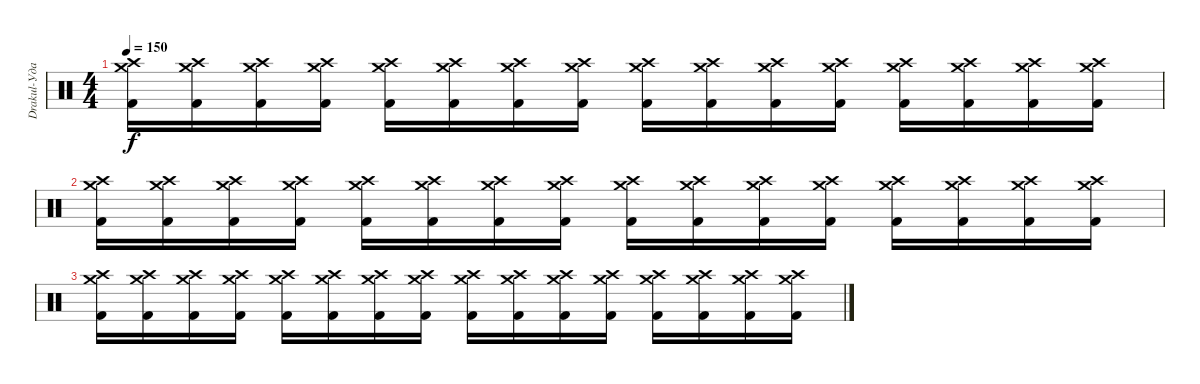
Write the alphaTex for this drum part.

\track ("Drakul-Ударные " "Drakul-Уда") {instrument percussion}
\staff {score}
\articulation defaults
\ts (4 4)
\tempo 150
\clef neutral
\ks c
("Kick (hit) 2" "Crash medium (hit)" "Crash high (hit)").16{dy f} ("Kick (hit) 2" "Crash medium (hit)" "Crash high (hit)").16 ("Kick (hit) 2" "Crash medium (hit)" "Crash high (hit)").16 ("Kick (hit) 2" "Crash medium (hit)" "Crash high (hit)").16 ("Kick (hit) 2" "Crash medium (hit)" "Crash high (hit)").16 ("Kick (hit) 2" "Crash medium (hit)" "Crash high (hit)").16 ("Kick (hit) 2" "Crash medium (hit)" "Crash high (hit)").16 ("Kick (hit) 2" "Crash medium (hit)" "Crash high (hit)").16 ("Kick (hit) 2" "Crash medium (hit)" "Crash high (hit)").16 ("Kick (hit) 2" "Crash medium (hit)" "Crash high (hit)").16 ("Kick (hit) 2" "Crash medium (hit)" "Crash high (hit)").16 ("Kick (hit) 2" "Crash medium (hit)" "Crash high (hit)").16 ("Kick (hit) 2" "Crash medium (hit)" "Crash high (hit)").16 ("Kick (hit) 2" "Crash medium (hit)" "Crash high (hit)").16 ("Kick (hit) 2" "Crash medium (hit)" "Crash high (hit)").16 ("Kick (hit) 2" "Crash medium (hit)" "Crash high (hit)").16 |
("Kick (hit) 2" "Crash medium (hit)" "Crash high (hit)").16 ("Kick (hit) 2" "Crash medium (hit)" "Crash high (hit)").16 ("Kick (hit) 2" "Crash medium (hit)" "Crash high (hit)").16 ("Kick (hit) 2" "Crash medium (hit)" "Crash high (hit)").16 ("Kick (hit) 2" "Crash medium (hit)" "Crash high (hit)").16 ("Kick (hit) 2" "Crash medium (hit)" "Crash high (hit)").16 ("Kick (hit) 2" "Crash medium (hit)" "Crash high (hit)").16 ("Kick (hit) 2" "Crash medium (hit)" "Crash high (hit)").16 ("Kick (hit) 2" "Crash medium (hit)" "Crash high (hit)").16 ("Kick (hit) 2" "Crash medium (hit)" "Crash high (hit)").16 ("Kick (hit) 2" "Crash medium (hit)" "Crash high (hit)").16 ("Kick (hit) 2" "Crash medium (hit)" "Crash high (hit)").16 ("Kick (hit) 2" "Crash medium (hit)" "Crash high (hit)").16 ("Kick (hit) 2" "Crash medium (hit)" "Crash high (hit)").16 ("Kick (hit) 2" "Crash medium (hit)" "Crash high (hit)").16 ("Kick (hit) 2" "Crash medium (hit)" "Crash high (hit)").16 |
("Kick (hit) 2" "Crash medium (hit)" "Crash high (hit)").16 ("Kick (hit) 2" "Crash medium (hit)" "Crash high (hit)").16 ("Kick (hit) 2" "Crash medium (hit)" "Crash high (hit)").16 ("Kick (hit) 2" "Crash medium (hit)" "Crash high (hit)").16 ("Kick (hit) 2" "Crash medium (hit)" "Crash high (hit)").16 ("Kick (hit) 2" "Crash medium (hit)" "Crash high (hit)").16 ("Kick (hit) 2" "Crash medium (hit)" "Crash high (hit)").16 ("Kick (hit) 2" "Crash medium (hit)" "Crash high (hit)").16 ("Kick (hit) 2" "Crash medium (hit)" "Crash high (hit)").16 ("Kick (hit) 2" "Crash medium (hit)" "Crash high (hit)").16 ("Kick (hit) 2" "Crash medium (hit)" "Crash high (hit)").16 ("Kick (hit) 2" "Crash medium (hit)" "Crash high (hit)").16 ("Kick (hit) 2" "Crash medium (hit)" "Crash high (hit)").16 ("Kick (hit) 2" "Crash medium (hit)" "Crash high (hit)").16 ("Kick (hit) 2" "Crash medium (hit)" "Crash high (hit)").16 ("Kick (hit) 2" "Crash medium (hit)" "Crash high (hit)").16
